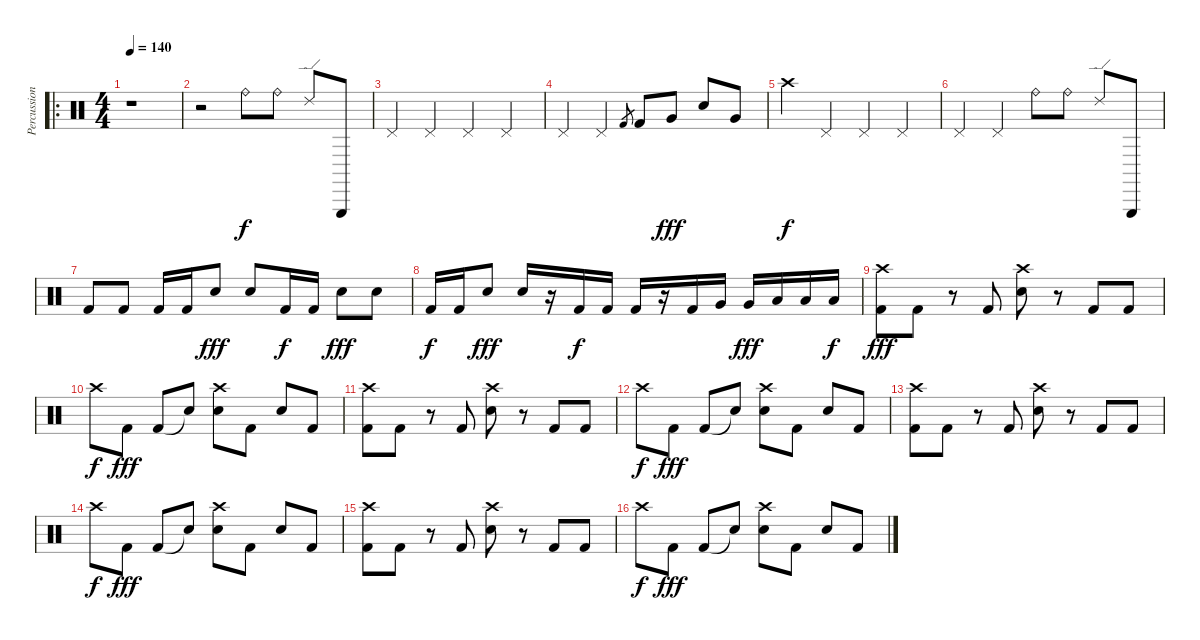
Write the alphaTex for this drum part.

\track ("Percussion" "Percussion") {instrument percussion}
\staff {score}
\articulation defaults
\ro
\ts (4 4)
\tempo 140
\clef neutral
\ks c
r.1{dy f} |
r.2 "Ride (bell)".8 "Ride (bell)".8 "Ride (edge) 2".8 "Triangle (hit)".8 |
"Pedal Hi-Hat (hit)".4 "Pedal Hi-Hat (hit)".4 "Pedal Hi-Hat (hit)".4 "Pedal Hi-Hat (hit)".4 |
"Pedal Hi-Hat (hit)".4 "Pedal Hi-Hat (hit)".4 "Kick (hit) 2".8{gr} "Kick (hit) 2".8 "Very Low Tom (hit)".8{dy fff} "Electric Snare (hit)".8 "Very Low Tom (hit)".8 |
"Crash high (hit)".4{dy f} "Pedal Hi-Hat (hit)".4 "Pedal Hi-Hat (hit)".4 "Pedal Hi-Hat (hit)".4 |
"Pedal Hi-Hat (hit)".4 "Pedal Hi-Hat (hit)".4 "Ride (bell)".8 "Ride (bell)".8 "Ride (edge) 2".8 "Triangle (hit)".8 |
"Kick (hit) 2".8 "Kick (hit) 2".8 "Kick (hit) 2".16 "Kick (hit) 2".16 "Electric Snare (hit)".8{dy fff} "Electric Snare (hit)".8 "Kick (hit) 2".16{dy f} "Kick (hit) 2".16 "Electric Snare (hit)".8{dy fff} "Electric Snare (hit)".8 |
"Kick (hit) 2".16{dy f} "Kick (hit) 2".16 "Electric Snare (hit)".8{dy fff} "Electric Snare (hit)".16 r.16 "Kick (hit) 2".16{dy f} "Kick (hit) 2".16 "Kick (hit) 2".16 r.16 "Kick (hit) 2".16 "Very Low Tom (hit)".16 "Very Low Tom (hit)".16{dy fff} "Low Floor Tom (hit)".16 "Low Floor Tom (hit)".16 "Low Floor Tom (hit)".16{dy f} |
("Crash high (hit)" "Kick (hit) 2").8{dy fff} "Kick (hit) 2".8 r.8 "Kick (hit) 2".8 ("Crash high (hit)" "Electric Snare (hit)").8 r.8 "Kick (hit) 2".8 "Kick (hit) 2".8 |
"Crash high (hit)".8{dy f} "Kick (hit) 2".8{dy fff} "Kick (hit) 2".8 "Snare (hit)"{t}.8 ("Crash high (hit)" "Electric Snare (hit)").8 "Kick (hit) 2".8 "Electric Snare (hit)".8 "Kick (hit) 2".8 |
("Crash high (hit)" "Kick (hit) 2").8 "Kick (hit) 2".8 r.8 "Kick (hit) 2".8 ("Crash high (hit)" "Electric Snare (hit)").8 r.8 "Kick (hit) 2".8 "Kick (hit) 2".8 |
"Crash high (hit)".8{dy f} "Kick (hit) 2".8{dy fff} "Kick (hit) 2".8 "Snare (hit)"{t}.8 ("Crash high (hit)" "Electric Snare (hit)").8 "Kick (hit) 2".8 "Electric Snare (hit)".8 "Kick (hit) 2".8 |
("Crash high (hit)" "Kick (hit) 2").8 "Kick (hit) 2".8 r.8 "Kick (hit) 2".8 ("Crash high (hit)" "Electric Snare (hit)").8 r.8 "Kick (hit) 2".8 "Kick (hit) 2".8 |
"Crash high (hit)".8{dy f} "Kick (hit) 2".8{dy fff} "Kick (hit) 2".8 "Snare (hit)"{t}.8 ("Crash high (hit)" "Electric Snare (hit)").8 "Kick (hit) 2".8 "Electric Snare (hit)".8 "Kick (hit) 2".8 |
("Crash high (hit)" "Kick (hit) 2").8 "Kick (hit) 2".8 r.8 "Kick (hit) 2".8 ("Crash high (hit)" "Electric Snare (hit)").8 r.8 "Kick (hit) 2".8 "Kick (hit) 2".8 |
"Crash high (hit)".8{dy f} "Kick (hit) 2".8{dy fff} "Kick (hit) 2".8 "Snare (hit)"{t}.8 ("Crash high (hit)" "Electric Snare (hit)").8 "Kick (hit) 2".8 "Electric Snare (hit)".8 "Kick (hit) 2".8
